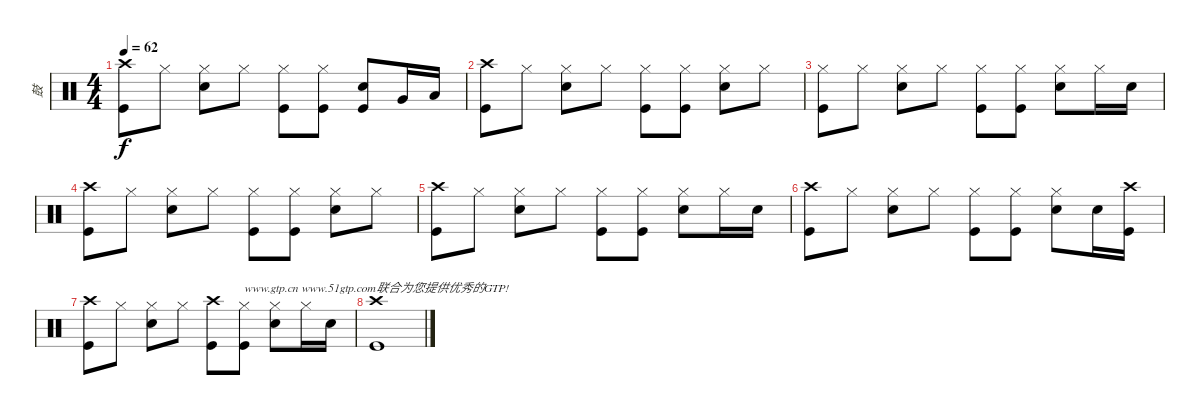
\track ("鼓" "鼓") {instrument percussion}
\staff {score}
\articulation defaults
\ts (4 4)
\tempo 62
\clef neutral
\ks c
("Kick (hit)" "Crash high (hit)").8{dy f} "Hi-Hat (closed)".8 ("Snare (hit) 2" "Hi-Hat (closed)").8 "Hi-Hat (closed)".8 ("Kick (hit)" "Hi-Hat (closed)").8 ("Kick (hit)" "Hi-Hat (closed)").8 ("Snare (hit) 2" "Kick (hit)").8 "Very Low Tom (hit)".16 "Low Floor Tom (hit)".16 |
("Kick (hit)" "Crash high (hit)").8 "Hi-Hat (closed)".8 ("Snare (hit) 2" "Hi-Hat (closed)").8 "Hi-Hat (closed)".8 ("Kick (hit)" "Hi-Hat (closed)").8 ("Kick (hit)" "Hi-Hat (closed)").8 ("Snare (hit) 2" "Hi-Hat (closed)").8 "Hi-Hat (closed)".8 |
("Kick (hit)" "Hi-Hat (closed)").8 "Hi-Hat (closed)".8 ("Snare (hit) 2" "Hi-Hat (closed)").8 "Hi-Hat (closed)".8 ("Kick (hit)" "Hi-Hat (closed)").8 ("Kick (hit)" "Hi-Hat (closed)").8 ("Snare (hit) 2" "Hi-Hat (closed)").8 "Hi-Hat (closed)".16 "Snare (hit) 2".16 |
("Kick (hit)" "Crash high (hit)").8 "Hi-Hat (closed)".8 ("Snare (hit) 2" "Hi-Hat (closed)").8 "Hi-Hat (closed)".8 ("Kick (hit)" "Hi-Hat (closed)").8 ("Kick (hit)" "Hi-Hat (closed)").8 ("Snare (hit) 2" "Hi-Hat (closed)").8 "Hi-Hat (closed)".8 |
("Kick (hit)" "Crash high (hit)").8 "Hi-Hat (closed)".8 ("Snare (hit) 2" "Hi-Hat (closed)").8 "Hi-Hat (closed)".8 ("Kick (hit)" "Hi-Hat (closed)").8 ("Kick (hit)" "Hi-Hat (closed)").8 ("Snare (hit) 2" "Hi-Hat (closed)").8 "Hi-Hat (closed)".16 "Snare (hit) 2".16 |
("Kick (hit)" "Crash high (hit)").8 "Hi-Hat (closed)".8 ("Snare (hit) 2" "Hi-Hat (closed)").8 "Hi-Hat (closed)".8 ("Kick (hit)" "Hi-Hat (closed)").8 ("Kick (hit)" "Hi-Hat (closed)").8 ("Snare (hit) 2" "Hi-Hat (closed)").8 "Snare (hit) 2".16 ("Crash high (hit)" "Kick (hit)").16 |
("Kick (hit)" "Crash high (hit)").8 "Hi-Hat (closed)".8 ("Snare (hit) 2" "Hi-Hat (closed)").8 "Hi-Hat (closed)".8 ("Kick (hit)" "Crash high (hit)").8 ("Kick (hit)" "Hi-Hat (closed)").8{txt "www.gtp.cn www.51gtp.com联合为您提供优秀的GTP!"} ("Snare (hit) 2" "Hi-Hat (closed)").8 "Hi-Hat (closed)".16 "Snare (hit) 2".16 |
("Kick (hit)" "Crash high (hit)").1
